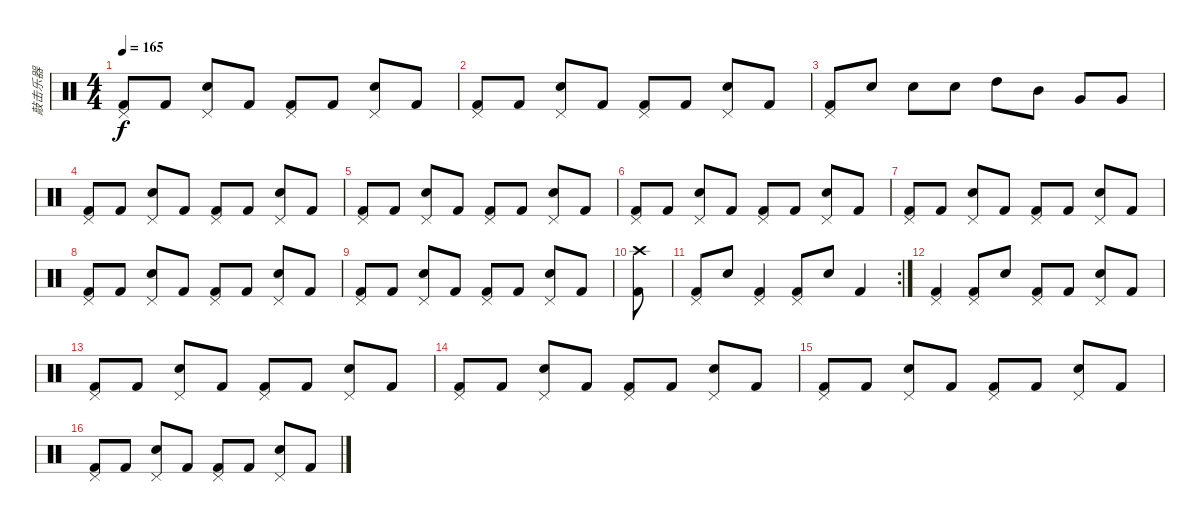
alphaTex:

\track ("敲击乐器" "敲击乐器") {instrument percussion}
\staff {score}
\articulation defaults
\ts (4 4)
\tempo 165
\clef neutral
\ks c
("Kick (hit) 2" "Pedal Hi-Hat (hit)").8{dy f} "Kick (hit) 2".8 ("Snare (hit) 2" "Pedal Hi-Hat (hit)").8 "Kick (hit) 2".8 ("Kick (hit) 2" "Pedal Hi-Hat (hit)").8 "Kick (hit) 2".8 ("Snare (hit) 2" "Pedal Hi-Hat (hit)").8 "Kick (hit) 2".8 |
("Kick (hit) 2" "Pedal Hi-Hat (hit)").8 "Kick (hit) 2".8 ("Snare (hit) 2" "Pedal Hi-Hat (hit)").8 "Kick (hit) 2".8 ("Kick (hit) 2" "Pedal Hi-Hat (hit)").8 "Kick (hit) 2".8 ("Snare (hit) 2" "Pedal Hi-Hat (hit)").8 "Kick (hit) 2".8 |
("Kick (hit) 2" "Pedal Hi-Hat (hit)").8 "Snare (hit) 2".8 "Snare (hit) 2".8 "Snare (hit) 2".8 "High Tom (hit)".8 "Mid Tom (hit)".8 "Very Low Tom (hit)".8 "Very Low Tom (hit)".8 |
("Kick (hit) 2" "Pedal Hi-Hat (hit)").8 "Kick (hit) 2".8 ("Snare (hit) 2" "Pedal Hi-Hat (hit)").8 "Kick (hit) 2".8 ("Kick (hit) 2" "Pedal Hi-Hat (hit)").8 "Kick (hit) 2".8 ("Snare (hit) 2" "Pedal Hi-Hat (hit)").8 "Kick (hit) 2".8 |
("Kick (hit) 2" "Pedal Hi-Hat (hit)").8 "Kick (hit) 2".8 ("Snare (hit) 2" "Pedal Hi-Hat (hit)").8 "Kick (hit) 2".8 ("Kick (hit) 2" "Pedal Hi-Hat (hit)").8 "Kick (hit) 2".8 ("Snare (hit) 2" "Pedal Hi-Hat (hit)").8 "Kick (hit) 2".8 |
("Kick (hit) 2" "Pedal Hi-Hat (hit)").8 "Kick (hit) 2".8 ("Snare (hit) 2" "Pedal Hi-Hat (hit)").8 "Kick (hit) 2".8 ("Kick (hit) 2" "Pedal Hi-Hat (hit)").8 "Kick (hit) 2".8 ("Snare (hit) 2" "Pedal Hi-Hat (hit)").8 "Kick (hit) 2".8 |
("Kick (hit) 2" "Pedal Hi-Hat (hit)").8 "Kick (hit) 2".8 ("Snare (hit) 2" "Pedal Hi-Hat (hit)").8 "Kick (hit) 2".8 ("Kick (hit) 2" "Pedal Hi-Hat (hit)").8 "Kick (hit) 2".8 ("Snare (hit) 2" "Pedal Hi-Hat (hit)").8 "Kick (hit) 2".8 |
("Kick (hit) 2" "Pedal Hi-Hat (hit)").8 "Kick (hit) 2".8 ("Snare (hit) 2" "Pedal Hi-Hat (hit)").8 "Kick (hit) 2".8 ("Kick (hit) 2" "Pedal Hi-Hat (hit)").8 "Kick (hit) 2".8 ("Snare (hit) 2" "Pedal Hi-Hat (hit)").8 "Kick (hit) 2".8 |
("Kick (hit) 2" "Pedal Hi-Hat (hit)").8 "Kick (hit) 2".8 ("Snare (hit) 2" "Pedal Hi-Hat (hit)").8 "Kick (hit) 2".8 ("Kick (hit) 2" "Pedal Hi-Hat (hit)").8 "Kick (hit) 2".8 ("Snare (hit) 2" "Pedal Hi-Hat (hit)").8 "Kick (hit) 2".8 |
("Kick (hit) 2" "Crash high (hit)").8 |
\rc 2
("Kick (hit) 2" "Pedal Hi-Hat (hit)").8 "Snare (hit) 2".8 ("Kick (hit) 2" "Pedal Hi-Hat (hit)").4 ("Kick (hit) 2" "Pedal Hi-Hat (hit)").8 "Snare (hit) 2".8 "Kick (hit) 2".4 |
("Kick (hit) 2" "Pedal Hi-Hat (hit)").4 ("Kick (hit) 2" "Pedal Hi-Hat (hit)").8 "Snare (hit) 2".8 ("Kick (hit) 2" "Pedal Hi-Hat (hit)").8 "Kick (hit) 2".8 ("Snare (hit) 2" "Pedal Hi-Hat (hit)").8 "Kick (hit) 2".8 |
("Kick (hit) 2" "Pedal Hi-Hat (hit)").8 "Kick (hit) 2".8 ("Snare (hit) 2" "Pedal Hi-Hat (hit)").8 "Kick (hit) 2".8 ("Kick (hit) 2" "Pedal Hi-Hat (hit)").8 "Kick (hit) 2".8 ("Snare (hit) 2" "Pedal Hi-Hat (hit)").8 "Kick (hit) 2".8 |
("Kick (hit) 2" "Pedal Hi-Hat (hit)").8 "Kick (hit) 2".8 ("Snare (hit) 2" "Pedal Hi-Hat (hit)").8 "Kick (hit) 2".8 ("Kick (hit) 2" "Pedal Hi-Hat (hit)").8 "Kick (hit) 2".8 ("Snare (hit) 2" "Pedal Hi-Hat (hit)").8 "Kick (hit) 2".8 |
("Kick (hit) 2" "Pedal Hi-Hat (hit)").8 "Kick (hit) 2".8 ("Snare (hit) 2" "Pedal Hi-Hat (hit)").8 "Kick (hit) 2".8 ("Kick (hit) 2" "Pedal Hi-Hat (hit)").8 "Kick (hit) 2".8 ("Snare (hit) 2" "Pedal Hi-Hat (hit)").8 "Kick (hit) 2".8 |
("Kick (hit) 2" "Pedal Hi-Hat (hit)").8 "Kick (hit) 2".8 ("Snare (hit) 2" "Pedal Hi-Hat (hit)").8 "Kick (hit) 2".8 ("Kick (hit) 2" "Pedal Hi-Hat (hit)").8 "Kick (hit) 2".8 ("Snare (hit) 2" "Pedal Hi-Hat (hit)").8 "Kick (hit) 2".8
